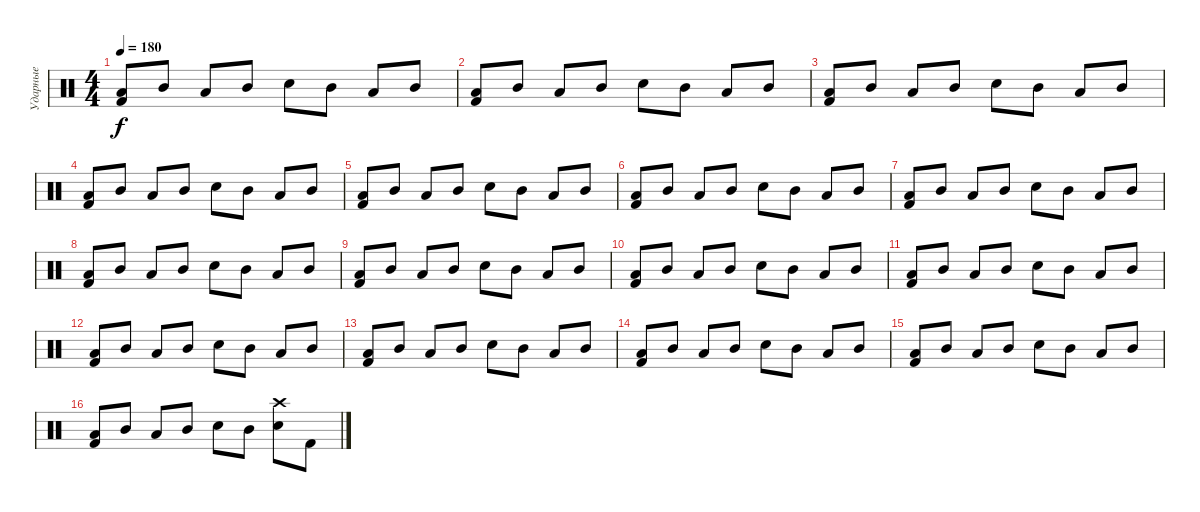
\track ("Ударные" "Ударные") {instrument percussion}
\staff {score}
\articulation defaults
\ts (4 4)
\tempo 180
\clef neutral
\ks c
("Low Tom (hit)" "Kick (hit) 2").8{dy f} "Mid Tom (hit)".8 "Low Tom (hit)".8 "Mid Tom (hit)".8 "Electric Snare (hit)".8 "Mid Tom (hit)".8 "Low Tom (hit)".8 "Mid Tom (hit)".8 |
("Low Tom (hit)" "Kick (hit) 2").8 "Mid Tom (hit)".8 "Low Tom (hit)".8 "Mid Tom (hit)".8 "Electric Snare (hit)".8 "Mid Tom (hit)".8 "Low Tom (hit)".8 "Mid Tom (hit)".8 |
("Low Tom (hit)" "Kick (hit) 2").8 "Mid Tom (hit)".8 "Low Tom (hit)".8 "Mid Tom (hit)".8 "Electric Snare (hit)".8 "Mid Tom (hit)".8 "Low Tom (hit)".8 "Mid Tom (hit)".8 |
("Low Tom (hit)" "Kick (hit) 2").8 "Mid Tom (hit)".8 "Low Tom (hit)".8 "Mid Tom (hit)".8 "Electric Snare (hit)".8 "Mid Tom (hit)".8 "Low Tom (hit)".8 "Mid Tom (hit)".8 |
("Low Tom (hit)" "Kick (hit) 2").8 "Mid Tom (hit)".8 "Low Tom (hit)".8 "Mid Tom (hit)".8 "Electric Snare (hit)".8 "Mid Tom (hit)".8 "Low Tom (hit)".8 "Mid Tom (hit)".8 |
("Low Tom (hit)" "Kick (hit) 2").8 "Mid Tom (hit)".8 "Low Tom (hit)".8 "Mid Tom (hit)".8 "Electric Snare (hit)".8 "Mid Tom (hit)".8 "Low Tom (hit)".8 "Mid Tom (hit)".8 |
("Low Tom (hit)" "Kick (hit) 2").8 "Mid Tom (hit)".8 "Low Tom (hit)".8 "Mid Tom (hit)".8 "Electric Snare (hit)".8 "Mid Tom (hit)".8 "Low Tom (hit)".8 "Mid Tom (hit)".8 |
("Low Tom (hit)" "Kick (hit) 2").8 "Mid Tom (hit)".8 "Low Tom (hit)".8 "Mid Tom (hit)".8 "Electric Snare (hit)".8 "Mid Tom (hit)".8 "Low Tom (hit)".8 "Mid Tom (hit)".8 |
("Low Tom (hit)" "Kick (hit) 2").8 "Mid Tom (hit)".8 "Low Tom (hit)".8 "Mid Tom (hit)".8 "Electric Snare (hit)".8 "Mid Tom (hit)".8 "Low Tom (hit)".8 "Mid Tom (hit)".8 |
("Low Tom (hit)" "Kick (hit) 2").8 "Mid Tom (hit)".8 "Low Tom (hit)".8 "Mid Tom (hit)".8 "Electric Snare (hit)".8 "Mid Tom (hit)".8 "Low Tom (hit)".8 "Mid Tom (hit)".8 |
("Low Tom (hit)" "Kick (hit) 2").8 "Mid Tom (hit)".8 "Low Tom (hit)".8 "Mid Tom (hit)".8 "Electric Snare (hit)".8 "Mid Tom (hit)".8 "Low Tom (hit)".8 "Mid Tom (hit)".8 |
("Low Tom (hit)" "Kick (hit) 2").8 "Mid Tom (hit)".8 "Low Tom (hit)".8 "Mid Tom (hit)".8 "Electric Snare (hit)".8 "Mid Tom (hit)".8 "Low Tom (hit)".8 "Mid Tom (hit)".8 |
("Low Tom (hit)" "Kick (hit) 2").8 "Mid Tom (hit)".8 "Low Tom (hit)".8 "Mid Tom (hit)".8 "Electric Snare (hit)".8 "Mid Tom (hit)".8 "Low Tom (hit)".8 "Mid Tom (hit)".8 |
("Low Tom (hit)" "Kick (hit) 2").8 "Mid Tom (hit)".8 "Low Tom (hit)".8 "Mid Tom (hit)".8 "Electric Snare (hit)".8 "Mid Tom (hit)".8 "Low Tom (hit)".8 "Mid Tom (hit)".8 |
("Low Tom (hit)" "Kick (hit) 2").8 "Mid Tom (hit)".8 "Low Tom (hit)".8 "Mid Tom (hit)".8 "Electric Snare (hit)".8 "Mid Tom (hit)".8 "Low Tom (hit)".8 "Mid Tom (hit)".8 |
("Low Tom (hit)" "Kick (hit) 2").8 "Mid Tom (hit)".8 "Low Tom (hit)".8 "Mid Tom (hit)".8 "Electric Snare (hit)".8 "Mid Tom (hit)".8 ("Crash high (hit)" "Electric Snare (hit)").8 "Kick (hit) 2".8
